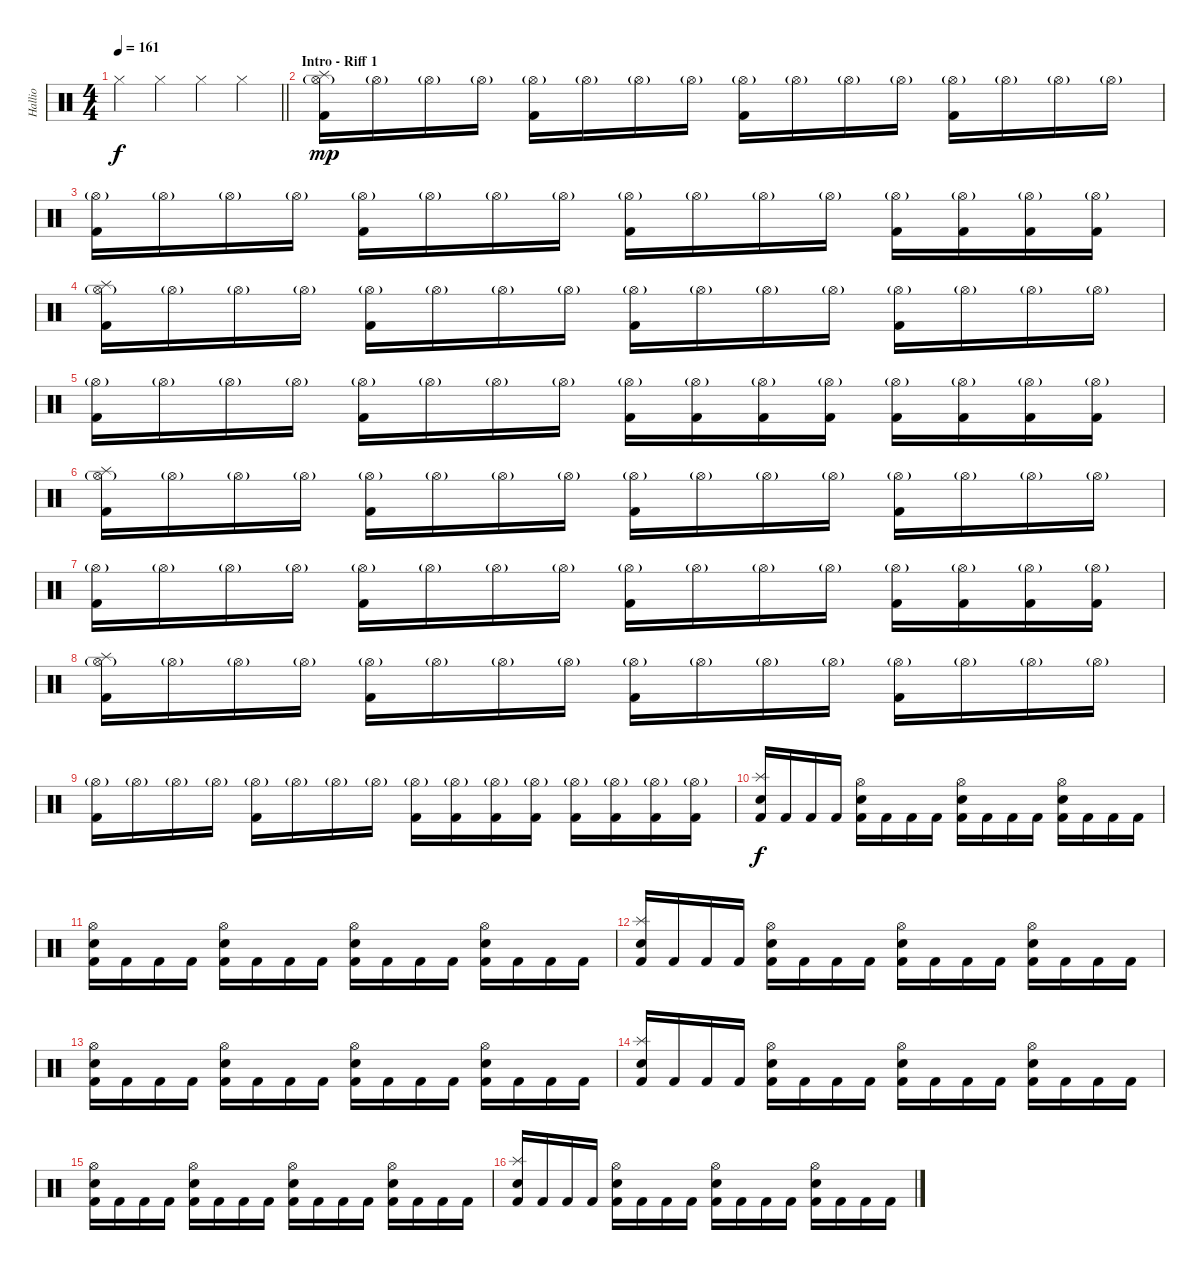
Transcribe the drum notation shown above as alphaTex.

\track ("Hallio" "Hallio") {instrument percussion}
\staff {score}
\articulation defaults
\ts (4 4)
\tempo 161
\clef neutral
\barLineRight lightlight
\ks c "Hi-Hat (closed)".4{dy f} "Hi-Hat (closed)".4 "Hi-Hat (closed)".4 "Hi-Hat (closed)".4
|
\section ("" "Intro - Riff 1")
("Hi-Hat (open)"{g} "Kick (hit) 2" "Splash (hit)").16{dy mp volume 13} "Hi-Hat (open)"{g}.16 "Hi-Hat (open)"{g}.16 "Hi-Hat (open)"{g}.16 ("Hi-Hat (open)"{g} "Kick (hit) 2").16 "Hi-Hat (open)"{g}.16 "Hi-Hat (open)"{g}.16 "Hi-Hat (open)"{g}.16 ("Hi-Hat (open)"{g} "Kick (hit) 2").16 "Hi-Hat (open)"{g}.16 "Hi-Hat (open)"{g}.16 "Hi-Hat (open)"{g}.16 ("Hi-Hat (open)"{g} "Kick (hit) 2").16 "Hi-Hat (open)"{g}.16 "Hi-Hat (open)"{g}.16 "Hi-Hat (open)"{g}.16 |
("Hi-Hat (open)"{g} "Kick (hit) 2").16 "Hi-Hat (open)"{g}.16 "Hi-Hat (open)"{g}.16 "Hi-Hat (open)"{g}.16 ("Hi-Hat (open)"{g} "Kick (hit) 2").16 "Hi-Hat (open)"{g}.16 "Hi-Hat (open)"{g}.16 "Hi-Hat (open)"{g}.16 ("Hi-Hat (open)"{g} "Kick (hit) 2").16 "Hi-Hat (open)"{g}.16 "Hi-Hat (open)"{g}.16 "Hi-Hat (open)"{g}.16 ("Hi-Hat (open)"{g} "Kick (hit) 2").16 ("Hi-Hat (open)"{g} "Kick (hit) 2").16 ("Hi-Hat (open)"{g} "Kick (hit) 2").16 ("Hi-Hat (open)"{g} "Kick (hit) 2").16 |
("Hi-Hat (open)"{g} "Kick (hit) 2" "Splash (hit)").16 "Hi-Hat (open)"{g}.16 "Hi-Hat (open)"{g}.16 "Hi-Hat (open)"{g}.16 ("Hi-Hat (open)"{g} "Kick (hit) 2").16 "Hi-Hat (open)"{g}.16 "Hi-Hat (open)"{g}.16 "Hi-Hat (open)"{g}.16 ("Hi-Hat (open)"{g} "Kick (hit) 2").16 "Hi-Hat (open)"{g}.16 "Hi-Hat (open)"{g}.16 "Hi-Hat (open)"{g}.16 ("Hi-Hat (open)"{g} "Kick (hit) 2").16 "Hi-Hat (open)"{g}.16 "Hi-Hat (open)"{g}.16 "Hi-Hat (open)"{g}.16 |
("Hi-Hat (open)"{g} "Kick (hit) 2").16 "Hi-Hat (open)"{g}.16 "Hi-Hat (open)"{g}.16 "Hi-Hat (open)"{g}.16 ("Hi-Hat (open)"{g} "Kick (hit) 2").16 "Hi-Hat (open)"{g}.16 "Hi-Hat (open)"{g}.16 "Hi-Hat (open)"{g}.16 ("Hi-Hat (open)"{g} "Kick (hit) 2").16 ("Hi-Hat (open)"{g} "Kick (hit) 2").16 ("Hi-Hat (open)"{g} "Kick (hit) 2").16 ("Hi-Hat (open)"{g} "Kick (hit) 2").16 ("Hi-Hat (open)"{g} "Kick (hit) 2").16 ("Hi-Hat (open)"{g} "Kick (hit) 2").16 ("Hi-Hat (open)"{g} "Kick (hit) 2").16 ("Hi-Hat (open)"{g} "Kick (hit) 2").16 |
("Hi-Hat (open)"{g} "Kick (hit) 2" "Splash (hit)").16 "Hi-Hat (open)"{g}.16 "Hi-Hat (open)"{g}.16 "Hi-Hat (open)"{g}.16 ("Hi-Hat (open)"{g} "Kick (hit) 2").16 "Hi-Hat (open)"{g}.16 "Hi-Hat (open)"{g}.16 "Hi-Hat (open)"{g}.16 ("Hi-Hat (open)"{g} "Kick (hit) 2").16 "Hi-Hat (open)"{g}.16 "Hi-Hat (open)"{g}.16 "Hi-Hat (open)"{g}.16 ("Hi-Hat (open)"{g} "Kick (hit) 2").16 "Hi-Hat (open)"{g}.16 "Hi-Hat (open)"{g}.16 "Hi-Hat (open)"{g}.16 |
("Hi-Hat (open)"{g} "Kick (hit) 2").16 "Hi-Hat (open)"{g}.16 "Hi-Hat (open)"{g}.16 "Hi-Hat (open)"{g}.16 ("Hi-Hat (open)"{g} "Kick (hit) 2").16 "Hi-Hat (open)"{g}.16 "Hi-Hat (open)"{g}.16 "Hi-Hat (open)"{g}.16 ("Hi-Hat (open)"{g} "Kick (hit) 2").16 "Hi-Hat (open)"{g}.16 "Hi-Hat (open)"{g}.16 "Hi-Hat (open)"{g}.16 ("Hi-Hat (open)"{g} "Kick (hit) 2").16 ("Hi-Hat (open)"{g} "Kick (hit) 2").16 ("Hi-Hat (open)"{g} "Kick (hit) 2").16 ("Hi-Hat (open)"{g} "Kick (hit) 2").16 |
("Hi-Hat (open)"{g} "Kick (hit) 2" "Splash (hit)").16 "Hi-Hat (open)"{g}.16 "Hi-Hat (open)"{g}.16 "Hi-Hat (open)"{g}.16 ("Hi-Hat (open)"{g} "Kick (hit) 2").16 "Hi-Hat (open)"{g}.16 "Hi-Hat (open)"{g}.16 "Hi-Hat (open)"{g}.16 ("Hi-Hat (open)"{g} "Kick (hit) 2").16 "Hi-Hat (open)"{g}.16 "Hi-Hat (open)"{g}.16 "Hi-Hat (open)"{g}.16 ("Hi-Hat (open)"{g} "Kick (hit) 2").16 "Hi-Hat (open)"{g}.16 "Hi-Hat (open)"{g}.16 "Hi-Hat (open)"{g}.16 |
("Hi-Hat (open)"{g} "Kick (hit) 2").16 "Hi-Hat (open)"{g}.16 "Hi-Hat (open)"{g}.16 "Hi-Hat (open)"{g}.16 ("Hi-Hat (open)"{g} "Kick (hit) 2").16 "Hi-Hat (open)"{g}.16 "Hi-Hat (open)"{g}.16 "Hi-Hat (open)"{g}.16 ("Hi-Hat (open)"{g} "Kick (hit) 2").16 ("Hi-Hat (open)"{g} "Kick (hit) 2").16 ("Hi-Hat (open)"{g} "Kick (hit) 2").16 ("Hi-Hat (open)"{g} "Kick (hit) 2").16 ("Hi-Hat (open)"{g} "Kick (hit) 2").16 ("Hi-Hat (open)"{g} "Kick (hit) 2").16 ("Hi-Hat (open)"{g} "Kick (hit) 2").16 ("Hi-Hat (open)"{g} "Kick (hit) 2").16 |
("Kick (hit) 2" "Snare (hit) 2" "Splash (hit)").16{dy f} "Kick (hit) 2".16 "Kick (hit) 2".16 "Kick (hit) 2".16 ("Kick (hit) 2" "Snare (hit) 2" "Hi-Hat (open)").16 "Kick (hit) 2".16 "Kick (hit) 2".16 "Kick (hit) 2".16 ("Kick (hit) 2" "Snare (hit) 2" "Hi-Hat (open)").16 "Kick (hit) 2".16 "Kick (hit) 2".16 "Kick (hit) 2".16 ("Kick (hit) 2" "Snare (hit) 2" "Hi-Hat (open)").16 "Kick (hit) 2".16 "Kick (hit) 2".16 "Kick (hit) 2".16 |
("Kick (hit) 2" "Snare (hit) 2" "Hi-Hat (open)").16 "Kick (hit) 2".16 "Kick (hit) 2".16 "Kick (hit) 2".16 ("Kick (hit) 2" "Snare (hit) 2" "Hi-Hat (open)").16 "Kick (hit) 2".16 "Kick (hit) 2".16 "Kick (hit) 2".16 ("Kick (hit) 2" "Snare (hit) 2" "Hi-Hat (open)").16 "Kick (hit) 2".16 "Kick (hit) 2".16 "Kick (hit) 2".16 ("Kick (hit) 2" "Snare (hit) 2" "Hi-Hat (open)").16 "Kick (hit) 2".16 "Kick (hit) 2".16 "Kick (hit) 2".16 |
("Kick (hit) 2" "Snare (hit) 2" "Splash (hit)").16 "Kick (hit) 2".16 "Kick (hit) 2".16 "Kick (hit) 2".16 ("Kick (hit) 2" "Snare (hit) 2" "Hi-Hat (open)").16 "Kick (hit) 2".16 "Kick (hit) 2".16 "Kick (hit) 2".16 ("Kick (hit) 2" "Snare (hit) 2" "Hi-Hat (open)").16 "Kick (hit) 2".16 "Kick (hit) 2".16 "Kick (hit) 2".16 ("Kick (hit) 2" "Snare (hit) 2" "Hi-Hat (open)").16 "Kick (hit) 2".16 "Kick (hit) 2".16 "Kick (hit) 2".16 |
("Kick (hit) 2" "Snare (hit) 2" "Hi-Hat (open)").16 "Kick (hit) 2".16 "Kick (hit) 2".16 "Kick (hit) 2".16 ("Kick (hit) 2" "Snare (hit) 2" "Hi-Hat (open)").16 "Kick (hit) 2".16 "Kick (hit) 2".16 "Kick (hit) 2".16 ("Kick (hit) 2" "Snare (hit) 2" "Hi-Hat (open)").16 "Kick (hit) 2".16 "Kick (hit) 2".16 "Kick (hit) 2".16 ("Kick (hit) 2" "Snare (hit) 2" "Hi-Hat (open)").16 "Kick (hit) 2".16 "Kick (hit) 2".16 "Kick (hit) 2".16 |
("Kick (hit) 2" "Snare (hit) 2" "Splash (hit)").16 "Kick (hit) 2".16 "Kick (hit) 2".16 "Kick (hit) 2".16 ("Kick (hit) 2" "Snare (hit) 2" "Hi-Hat (open)").16 "Kick (hit) 2".16 "Kick (hit) 2".16 "Kick (hit) 2".16 ("Kick (hit) 2" "Snare (hit) 2" "Hi-Hat (open)").16 "Kick (hit) 2".16 "Kick (hit) 2".16 "Kick (hit) 2".16 ("Kick (hit) 2" "Snare (hit) 2" "Hi-Hat (open)").16 "Kick (hit) 2".16 "Kick (hit) 2".16 "Kick (hit) 2".16 |
("Kick (hit) 2" "Snare (hit) 2" "Hi-Hat (open)").16 "Kick (hit) 2".16 "Kick (hit) 2".16 "Kick (hit) 2".16 ("Kick (hit) 2" "Snare (hit) 2" "Hi-Hat (open)").16 "Kick (hit) 2".16 "Kick (hit) 2".16 "Kick (hit) 2".16 ("Kick (hit) 2" "Snare (hit) 2" "Hi-Hat (open)").16 "Kick (hit) 2".16 "Kick (hit) 2".16 "Kick (hit) 2".16 ("Kick (hit) 2" "Snare (hit) 2" "Hi-Hat (open)").16 "Kick (hit) 2".16 "Kick (hit) 2".16 "Kick (hit) 2".16 |
("Kick (hit) 2" "Snare (hit) 2" "Splash (hit)").16 "Kick (hit) 2".16 "Kick (hit) 2".16 "Kick (hit) 2".16 ("Kick (hit) 2" "Snare (hit) 2" "Hi-Hat (open)").16 "Kick (hit) 2".16 "Kick (hit) 2".16 "Kick (hit) 2".16 ("Kick (hit) 2" "Snare (hit) 2" "Hi-Hat (open)").16 "Kick (hit) 2".16 "Kick (hit) 2".16 "Kick (hit) 2".16 ("Kick (hit) 2" "Snare (hit) 2" "Hi-Hat (open)").16 "Kick (hit) 2".16 "Kick (hit) 2".16 "Kick (hit) 2".16
